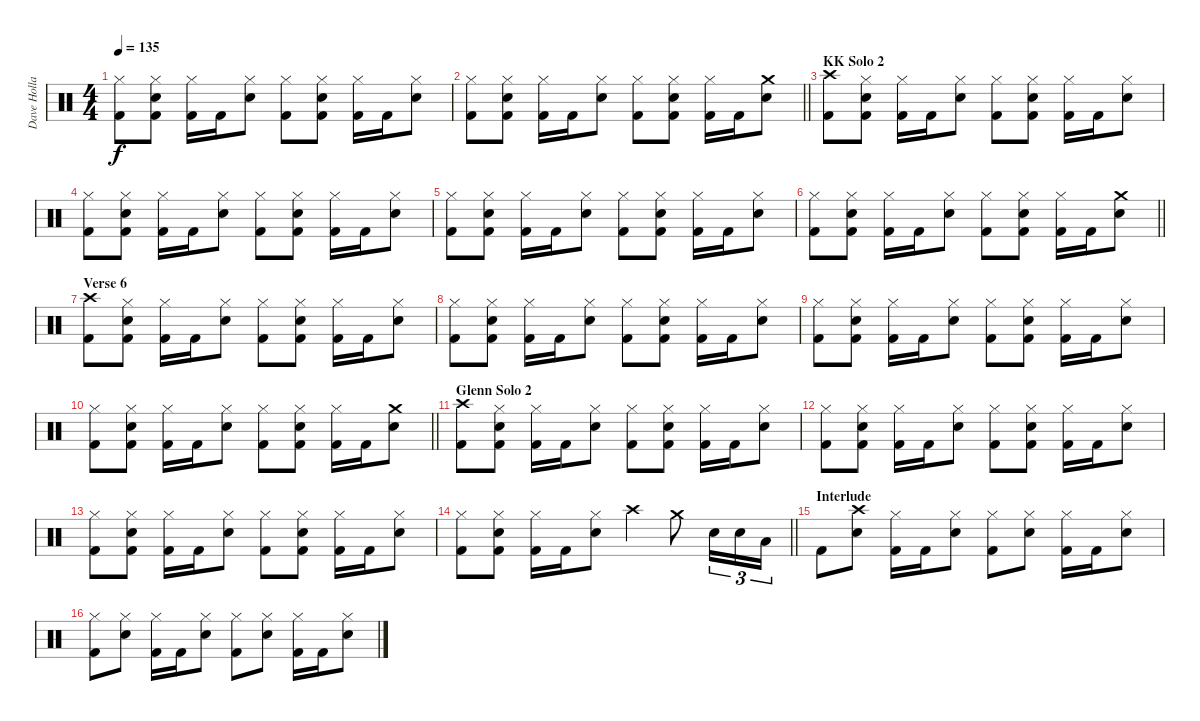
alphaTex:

\track ("Dave Holland" "Dave Holla") {instrument percussion}
\staff {score}
\articulation defaults
\ts (4 4)
\tempo 135
\clef neutral
\ks c
("Hi-Hat (closed)" "Kick (hit) 2").8{dy f} ("Hi-Hat (closed)" "Snare (hit) 2" "Kick (hit) 2").8 ("Hi-Hat (closed)" "Kick (hit) 2").16 "Kick (hit) 2".16 ("Hi-Hat (closed)" "Snare (hit) 2").8 ("Hi-Hat (closed)" "Kick (hit) 2").8 ("Hi-Hat (closed)" "Snare (hit) 2" "Kick (hit) 2").8 ("Hi-Hat (closed)" "Kick (hit) 2").16 "Kick (hit) 2".16 ("Hi-Hat (closed)" "Snare (hit) 2").8 |
\barLineRight lightlight
("Hi-Hat (closed)" "Kick (hit) 2").8 ("Hi-Hat (closed)" "Snare (hit) 2" "Kick (hit) 2").8 ("Hi-Hat (closed)" "Kick (hit) 2").16 "Kick (hit) 2".16 ("Hi-Hat (closed)" "Snare (hit) 2").8 ("Hi-Hat (closed)" "Kick (hit) 2").8 ("Hi-Hat (closed)" "Snare (hit) 2" "Kick (hit) 2").8 ("Hi-Hat (closed)" "Kick (hit) 2").16 "Kick (hit) 2".16 ("Crash medium (hit)" "Snare (hit) 2").8 |
\section ("" "KK Solo 2")
("Crash high (hit)" "Kick (hit) 2").8 ("Hi-Hat (closed)" "Snare (hit) 2" "Kick (hit) 2").8 ("Hi-Hat (closed)" "Kick (hit) 2").16 "Kick (hit) 2".16 ("Hi-Hat (closed)" "Snare (hit) 2").8 ("Hi-Hat (closed)" "Kick (hit) 2").8 ("Hi-Hat (closed)" "Snare (hit) 2" "Kick (hit) 2").8 ("Hi-Hat (closed)" "Kick (hit) 2").16 "Kick (hit) 2".16 ("Hi-Hat (closed)" "Snare (hit) 2").8 |
("Hi-Hat (closed)" "Kick (hit) 2").8 ("Hi-Hat (closed)" "Snare (hit) 2" "Kick (hit) 2").8 ("Hi-Hat (closed)" "Kick (hit) 2").16 "Kick (hit) 2".16 ("Hi-Hat (closed)" "Snare (hit) 2").8 ("Hi-Hat (closed)" "Kick (hit) 2").8 ("Hi-Hat (closed)" "Snare (hit) 2" "Kick (hit) 2").8 ("Hi-Hat (closed)" "Kick (hit) 2").16 "Kick (hit) 2".16 ("Hi-Hat (closed)" "Snare (hit) 2").8 |
("Hi-Hat (closed)" "Kick (hit) 2").8 ("Hi-Hat (closed)" "Snare (hit) 2" "Kick (hit) 2").8 ("Hi-Hat (closed)" "Kick (hit) 2").16 "Kick (hit) 2".16 ("Hi-Hat (closed)" "Snare (hit) 2").8 ("Hi-Hat (closed)" "Kick (hit) 2").8 ("Hi-Hat (closed)" "Snare (hit) 2" "Kick (hit) 2").8 ("Hi-Hat (closed)" "Kick (hit) 2").16 "Kick (hit) 2".16 ("Hi-Hat (closed)" "Snare (hit) 2").8 |
\barLineRight lightlight
("Hi-Hat (closed)" "Kick (hit) 2").8 ("Hi-Hat (closed)" "Snare (hit) 2" "Kick (hit) 2").8 ("Hi-Hat (closed)" "Kick (hit) 2").16 "Kick (hit) 2".16 ("Hi-Hat (closed)" "Snare (hit) 2").8 ("Hi-Hat (closed)" "Kick (hit) 2").8 ("Hi-Hat (closed)" "Snare (hit) 2" "Kick (hit) 2").8 ("Hi-Hat (closed)" "Kick (hit) 2").16 "Kick (hit) 2".16 ("Crash medium (hit)" "Snare (hit) 2").8 |
\section ("" "Verse 6")
("Crash high (hit)" "Kick (hit) 2").8 ("Hi-Hat (closed)" "Snare (hit) 2" "Kick (hit) 2").8 ("Hi-Hat (closed)" "Kick (hit) 2").16 "Kick (hit) 2".16 ("Hi-Hat (closed)" "Snare (hit) 2").8 ("Hi-Hat (closed)" "Kick (hit) 2").8 ("Hi-Hat (closed)" "Snare (hit) 2" "Kick (hit) 2").8 ("Hi-Hat (closed)" "Kick (hit) 2").16 "Kick (hit) 2".16 ("Hi-Hat (closed)" "Snare (hit) 2").8 |
("Hi-Hat (closed)" "Kick (hit) 2").8 ("Hi-Hat (closed)" "Snare (hit) 2" "Kick (hit) 2").8 ("Hi-Hat (closed)" "Kick (hit) 2").16 "Kick (hit) 2".16 ("Hi-Hat (closed)" "Snare (hit) 2").8 ("Hi-Hat (closed)" "Kick (hit) 2").8 ("Hi-Hat (closed)" "Snare (hit) 2" "Kick (hit) 2").8 ("Hi-Hat (closed)" "Kick (hit) 2").16 "Kick (hit) 2".16 ("Hi-Hat (closed)" "Snare (hit) 2").8 |
("Hi-Hat (closed)" "Kick (hit) 2").8 ("Hi-Hat (closed)" "Snare (hit) 2" "Kick (hit) 2").8 ("Hi-Hat (closed)" "Kick (hit) 2").16 "Kick (hit) 2".16 ("Hi-Hat (closed)" "Snare (hit) 2").8 ("Hi-Hat (closed)" "Kick (hit) 2").8 ("Hi-Hat (closed)" "Snare (hit) 2" "Kick (hit) 2").8 ("Hi-Hat (closed)" "Kick (hit) 2").16 "Kick (hit) 2".16 ("Hi-Hat (closed)" "Snare (hit) 2").8 |
\barLineRight lightlight
("Hi-Hat (closed)" "Kick (hit) 2").8 ("Hi-Hat (closed)" "Snare (hit) 2" "Kick (hit) 2").8 ("Hi-Hat (closed)" "Kick (hit) 2").16 "Kick (hit) 2".16 ("Hi-Hat (closed)" "Snare (hit) 2").8 ("Hi-Hat (closed)" "Kick (hit) 2").8 ("Hi-Hat (closed)" "Snare (hit) 2" "Kick (hit) 2").8 ("Hi-Hat (closed)" "Kick (hit) 2").16 "Kick (hit) 2".16 ("Crash medium (hit)" "Snare (hit) 2").8 |
\section ("" "Glenn Solo 2")
("Crash high (hit)" "Kick (hit) 2").8 ("Hi-Hat (closed)" "Snare (hit) 2" "Kick (hit) 2").8 ("Hi-Hat (closed)" "Kick (hit) 2").16 "Kick (hit) 2".16 ("Hi-Hat (closed)" "Snare (hit) 2").8 ("Hi-Hat (closed)" "Kick (hit) 2").8 ("Hi-Hat (closed)" "Snare (hit) 2" "Kick (hit) 2").8 ("Hi-Hat (closed)" "Kick (hit) 2").16 "Kick (hit) 2".16 ("Hi-Hat (closed)" "Snare (hit) 2").8 |
("Hi-Hat (closed)" "Kick (hit) 2").8 ("Hi-Hat (closed)" "Snare (hit) 2" "Kick (hit) 2").8 ("Hi-Hat (closed)" "Kick (hit) 2").16 "Kick (hit) 2".16 ("Hi-Hat (closed)" "Snare (hit) 2").8 ("Hi-Hat (closed)" "Kick (hit) 2").8 ("Hi-Hat (closed)" "Snare (hit) 2" "Kick (hit) 2").8 ("Hi-Hat (closed)" "Kick (hit) 2").16 "Kick (hit) 2".16 ("Hi-Hat (closed)" "Snare (hit) 2").8 |
("Hi-Hat (closed)" "Kick (hit) 2").8 ("Hi-Hat (closed)" "Snare (hit) 2" "Kick (hit) 2").8 ("Hi-Hat (closed)" "Kick (hit) 2").16 "Kick (hit) 2".16 ("Hi-Hat (closed)" "Snare (hit) 2").8 ("Hi-Hat (closed)" "Kick (hit) 2").8 ("Hi-Hat (closed)" "Snare (hit) 2" "Kick (hit) 2").8 ("Hi-Hat (closed)" "Kick (hit) 2").16 "Kick (hit) 2".16 ("Hi-Hat (closed)" "Snare (hit) 2").8 |
\barLineRight lightlight
("Hi-Hat (closed)" "Kick (hit) 2").8 ("Hi-Hat (closed)" "Snare (hit) 2" "Kick (hit) 2").8 ("Hi-Hat (closed)" "Kick (hit) 2").16 "Kick (hit) 2".16 ("Hi-Hat (closed)" "Snare (hit) 2").8 "Crash high (hit)".4 "Crash medium (hit)".8 "Snare (hit) 2".16{tu (3 2)} "Snare (hit) 2".16{tu (3 2)} "Low Tom (hit)".16{tu (3 2)} |
\section ("" "Interlude")
"Kick (hit) 2".8 ("Crash high (hit)" "Snare (hit) 2").8 ("Hi-Hat (closed)" "Kick (hit) 2").16 "Kick (hit) 2".16 ("Hi-Hat (closed)" "Snare (hit) 2").8 ("Hi-Hat (closed)" "Kick (hit) 2").8 ("Hi-Hat (closed)" "Snare (hit) 2").8 ("Hi-Hat (closed)" "Kick (hit) 2").16 "Kick (hit) 2".16 ("Hi-Hat (closed)" "Snare (hit) 2").8 |
("Hi-Hat (closed)" "Kick (hit) 2").8 ("Hi-Hat (closed)" "Snare (hit) 2").8 ("Hi-Hat (closed)" "Kick (hit) 2").16 "Kick (hit) 2".16 ("Hi-Hat (closed)" "Snare (hit) 2").8 ("Hi-Hat (closed)" "Kick (hit) 2").8 ("Hi-Hat (closed)" "Snare (hit) 2").8 ("Hi-Hat (closed)" "Kick (hit) 2").16 "Kick (hit) 2".16 ("Hi-Hat (closed)" "Snare (hit) 2").8
